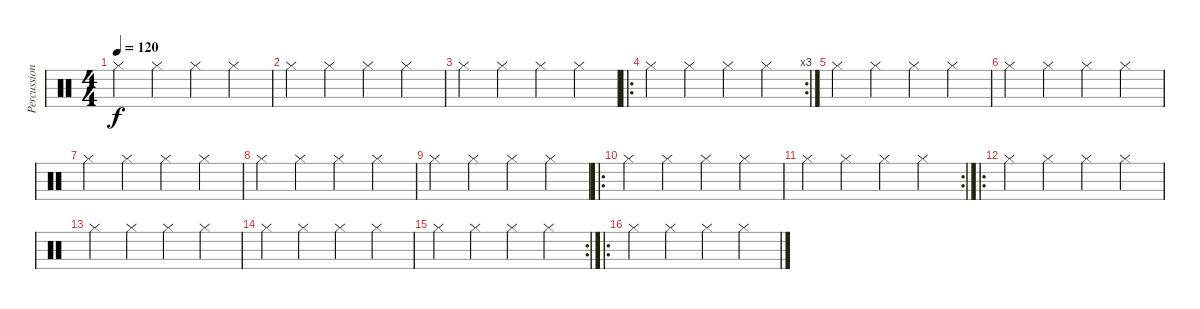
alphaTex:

\track ("Percussioni" "Percussion") {instrument percussion}
\staff {score}
\articulation defaults
\ts (4 4)
\tempo 120
\clef neutral
\ks c "Hi-Hat (closed)".4{dy f} "Hi-Hat (closed)".4 "Hi-Hat (closed)".4 "Hi-Hat (closed)".4
|
"Hi-Hat (closed)".4 "Hi-Hat (closed)".4 "Hi-Hat (closed)".4 "Hi-Hat (closed)".4 |
"Hi-Hat (closed)".4 "Hi-Hat (closed)".4 "Hi-Hat (closed)".4 "Hi-Hat (closed)".4 |
\ro
\rc 3 "Hi-Hat (closed)".4 "Hi-Hat (closed)".4 "Hi-Hat (closed)".4 "Hi-Hat (closed)".4
|
"Hi-Hat (closed)".4 "Hi-Hat (closed)".4 "Hi-Hat (closed)".4 "Hi-Hat (closed)".4 |
"Hi-Hat (closed)".4 "Hi-Hat (closed)".4 "Hi-Hat (closed)".4 "Hi-Hat (closed)".4 |
"Hi-Hat (closed)".4 "Hi-Hat (closed)".4 "Hi-Hat (closed)".4 "Hi-Hat (closed)".4 |
"Hi-Hat (closed)".4 "Hi-Hat (closed)".4 "Hi-Hat (closed)".4 "Hi-Hat (closed)".4 |
"Hi-Hat (closed)".4 "Hi-Hat (closed)".4 "Hi-Hat (closed)".4 "Hi-Hat (closed)".4 |
\ro "Hi-Hat (closed)".4 "Hi-Hat (closed)".4 "Hi-Hat (closed)".4 "Hi-Hat (closed)".4
|
\rc 2 "Hi-Hat (closed)".4 "Hi-Hat (closed)".4 "Hi-Hat (closed)".4 "Hi-Hat (closed)".4
|
\ro "Hi-Hat (closed)".4 "Hi-Hat (closed)".4 "Hi-Hat (closed)".4 "Hi-Hat (closed)".4
|
"Hi-Hat (closed)".4 "Hi-Hat (closed)".4 "Hi-Hat (closed)".4 "Hi-Hat (closed)".4 |
"Hi-Hat (closed)".4 "Hi-Hat (closed)".4 "Hi-Hat (closed)".4 "Hi-Hat (closed)".4 |
\rc 2 "Hi-Hat (closed)".4 "Hi-Hat (closed)".4 "Hi-Hat (closed)".4 "Hi-Hat (closed)".4
|
\ro "Hi-Hat (closed)".4 "Hi-Hat (closed)".4 "Hi-Hat (closed)".4 "Hi-Hat (closed)".4
